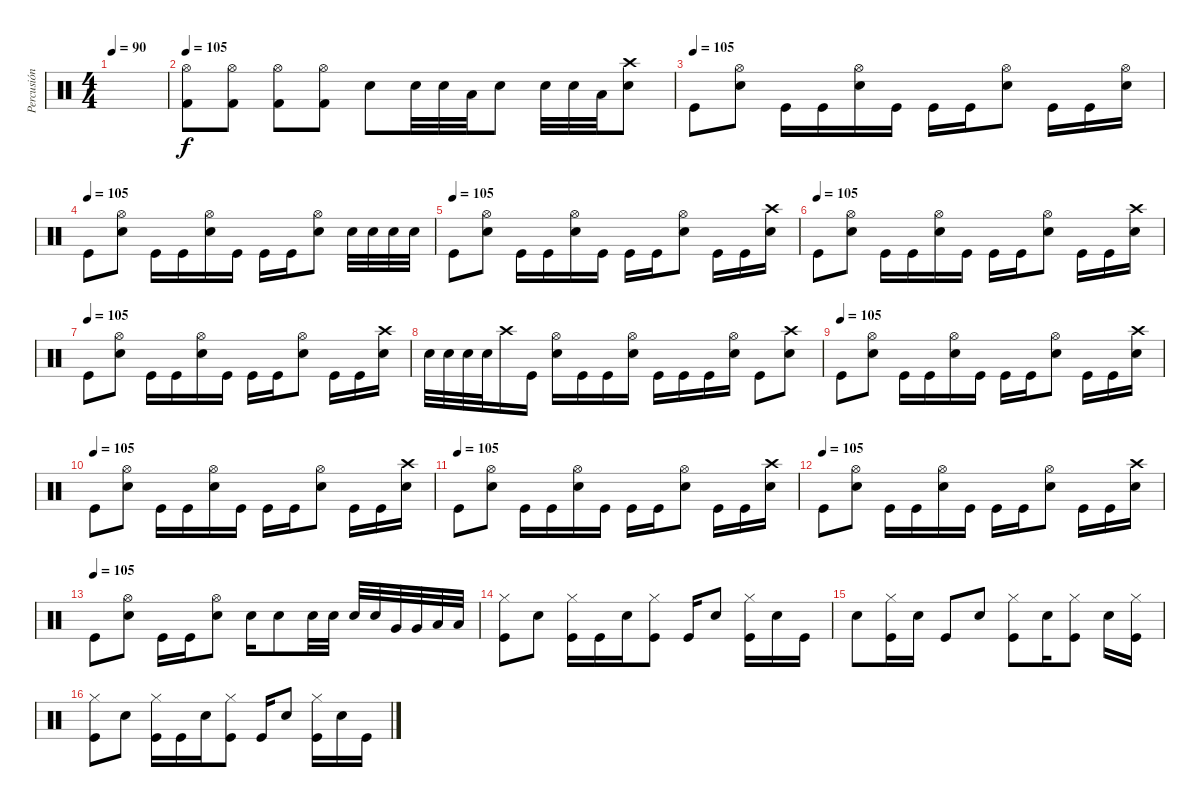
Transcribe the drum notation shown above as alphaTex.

\track ("Percusión" "Percusión") {instrument percussion}
\staff {score}
\articulation defaults
\ts (4 4)
\tempo 90
\tempo 105
\tempo 90
\clef neutral
\ks c
|
\tempo 105
("Kick (hit) 2" "Hi-Hat (open)").8 ("Kick (hit) 2" "Hi-Hat (open)").8 ("Kick (hit) 2" "Hi-Hat (open)").8 ("Kick (hit) 2" "Hi-Hat (open)").8 "Electric Snare (hit)".8 "Electric Snare (hit)".32 "Electric Snare (hit)".32 "Low Floor Tom (hit)".32 "Electric Snare (hit)".8 "Electric Snare (hit)".32 "Electric Snare (hit)".32 "Low Floor Tom (hit)".32 ("Electric Snare (hit)" "Crash high (hit)").8 |
\tempo (105)
"Kick (hit)".8 ("Electric Snare (hit)" "Hi-Hat (open)").8 "Kick (hit)".16 "Kick (hit)".16 ("Electric Snare (hit)" "Hi-Hat (open)").16 "Kick (hit)".16 "Kick (hit)".16 "Kick (hit)".16 ("Electric Snare (hit)" "Hi-Hat (open)").8 "Kick (hit)".16 "Kick (hit)".16 ("Electric Snare (hit)" "Hi-Hat (open)").16 |
\tempo (105)
"Kick (hit)".8 ("Electric Snare (hit)" "Hi-Hat (open)").8 "Kick (hit)".16 "Kick (hit)".16 ("Electric Snare (hit)" "Hi-Hat (open)").16 "Kick (hit)".16 "Kick (hit)".16 "Kick (hit)".16 ("Electric Snare (hit)" "Hi-Hat (open)").8 "Electric Snare (hit)".32 "Electric Snare (hit)".32 "Electric Snare (hit)".32 "Electric Snare (hit)".32 |
\tempo (105)
"Kick (hit)".8 ("Electric Snare (hit)" "Hi-Hat (open)").8 "Kick (hit)".16 "Kick (hit)".16 ("Electric Snare (hit)" "Hi-Hat (open)").16 "Kick (hit)".16 "Kick (hit)".16 "Kick (hit)".16 ("Electric Snare (hit)" "Hi-Hat (open)").8 "Kick (hit)".16 "Kick (hit)".16 ("Electric Snare (hit)" "Crash high (hit)").16 |
\tempo (105)
"Kick (hit)".8 ("Electric Snare (hit)" "Hi-Hat (open)").8 "Kick (hit)".16 "Kick (hit)".16 ("Electric Snare (hit)" "Hi-Hat (open)").16 "Kick (hit)".16 "Kick (hit)".16 "Kick (hit)".16 ("Electric Snare (hit)" "Hi-Hat (open)").8 "Kick (hit)".16 "Kick (hit)".16 ("Electric Snare (hit)" "Crash high (hit)").16 |
\tempo (105)
"Kick (hit)".8 ("Electric Snare (hit)" "Hi-Hat (open)").8 "Kick (hit)".16 "Kick (hit)".16 ("Electric Snare (hit)" "Hi-Hat (open)").16 "Kick (hit)".16 "Kick (hit)".16 "Kick (hit)".16 ("Electric Snare (hit)" "Hi-Hat (open)").8 "Kick (hit)".16 "Kick (hit)".16 ("Electric Snare (hit)" "Crash high (hit)").16 |
"Electric Snare (hit)".32 "Electric Snare (hit)".32 "Electric Snare (hit)".32 "Electric Snare (hit)".32 "Crash high (hit)".16 "Kick (hit)".16 ("Electric Snare (hit)" "Hi-Hat (open)").16 "Kick (hit)".16 "Kick (hit)".16 ("Electric Snare (hit)" "Hi-Hat (open)").16 "Kick (hit)".16 "Kick (hit)".16 "Kick (hit)".16 ("Electric Snare (hit)" "Hi-Hat (open)").16 "Kick (hit)".8 ("Electric Snare (hit)" "Crash high (hit)").8 |
\tempo (105)
"Kick (hit)".8 ("Electric Snare (hit)" "Hi-Hat (open)").8 "Kick (hit)".16 "Kick (hit)".16 ("Electric Snare (hit)" "Hi-Hat (open)").16 "Kick (hit)".16 "Kick (hit)".16 "Kick (hit)".16 ("Electric Snare (hit)" "Hi-Hat (open)").8 "Kick (hit)".16 "Kick (hit)".16 ("Electric Snare (hit)" "Crash high (hit)").16 |
\tempo (105)
"Kick (hit)".8 ("Electric Snare (hit)" "Hi-Hat (open)").8 "Kick (hit)".16 "Kick (hit)".16 ("Electric Snare (hit)" "Hi-Hat (open)").16 "Kick (hit)".16 "Kick (hit)".16 "Kick (hit)".16 ("Electric Snare (hit)" "Hi-Hat (open)").8 "Kick (hit)".16 "Kick (hit)".16 ("Electric Snare (hit)" "Crash high (hit)").16 |
\tempo (105)
"Kick (hit)".8 ("Electric Snare (hit)" "Hi-Hat (open)").8 "Kick (hit)".16 "Kick (hit)".16 ("Electric Snare (hit)" "Hi-Hat (open)").16 "Kick (hit)".16 "Kick (hit)".16 "Kick (hit)".16 ("Electric Snare (hit)" "Hi-Hat (open)").8 "Kick (hit)".16 "Kick (hit)".16 ("Electric Snare (hit)" "Crash high (hit)").16 |
\tempo (105)
"Kick (hit)".8 ("Electric Snare (hit)" "Hi-Hat (open)").8 "Kick (hit)".16 "Kick (hit)".16 ("Electric Snare (hit)" "Hi-Hat (open)").16 "Kick (hit)".16 "Kick (hit)".16 "Kick (hit)".16 ("Electric Snare (hit)" "Hi-Hat (open)").8 "Kick (hit)".16 "Kick (hit)".16 ("Electric Snare (hit)" "Crash high (hit)").16 |
\tempo (105)
"Kick (hit)".8 ("Electric Snare (hit)" "Hi-Hat (open)").8 "Kick (hit)".16 "Kick (hit)".16 ("Electric Snare (hit)" "Hi-Hat (open)").8 "Electric Snare (hit)".16 "Electric Snare (hit)".8 "Electric Snare (hit)".32 "Electric Snare (hit)".32 "Electric Snare (hit)".32 "Electric Snare (hit)".32 "Very Low Tom (hit)".32 "Very Low Tom (hit)".32 "Low Floor Tom (hit)".32 "Low Floor Tom (hit)".32 |
("Kick (hit)" "Hi-Hat (closed)").8 "Electric Snare (hit)".8 ("Kick (hit)" "Hi-Hat (closed)").16 "Kick (hit)".16 "Electric Snare (hit)".16 ("Kick (hit)" "Hi-Hat (closed)").8 "Kick (hit)".16 "Electric Snare (hit)".8 ("Kick (hit)" "Hi-Hat (closed)").16 "Electric Snare (hit)".16 "Kick (hit)".16 |
"Electric Snare (hit)".8 ("Kick (hit)" "Hi-Hat (closed)").16 "Electric Snare (hit)".16 "Kick (hit)".8 "Electric Snare (hit)".8 ("Kick (hit)" "Hi-Hat (closed)").8 "Electric Snare (hit)".16 ("Kick (hit)" "Hi-Hat (closed)").8 "Electric Snare (hit)".16 ("Kick (hit)" "Hi-Hat (closed)").16 |
("Kick (hit)" "Hi-Hat (closed)").8 "Electric Snare (hit)".8 ("Kick (hit)" "Hi-Hat (closed)").16 "Kick (hit)".16 "Electric Snare (hit)".16 ("Kick (hit)" "Hi-Hat (closed)").8 "Kick (hit)".16 "Electric Snare (hit)".8 ("Kick (hit)" "Hi-Hat (closed)").16 "Electric Snare (hit)".16 "Kick (hit)".16
